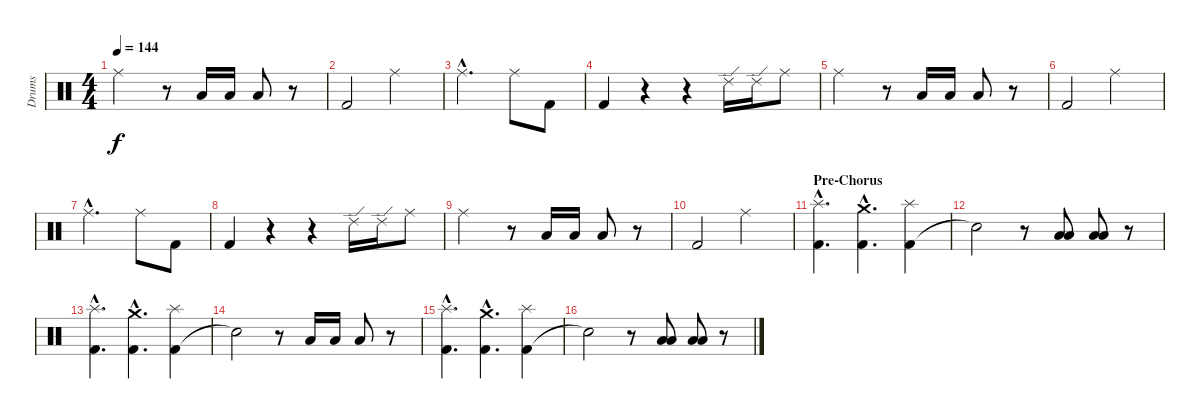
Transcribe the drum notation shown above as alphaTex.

\track ("Drums" "Drums") {instrument percussion}
\staff {score}
\articulation defaults
\ts (4 4)
\tempo 144
\clef neutral
\ks c "Ride (middle)".2{dy f}
r.8 "Low Tom (hit)".16 "Low Tom (hit)".16 "Low Tom (hit)".8 r.8 |
"Kick (hit) 2".2 "Ride (middle)".2 |
"Ride (middle)"{hac}.2{d} "Ride (middle)".8 "Kick (hit) 2".8 |
"Kick (hit) 2".4 r.4 r.4 "Ride (edge) 2".16 "Ride (edge) 2".16 "Ride (middle)".8 |
"Ride (middle)".2 r.8 "Low Tom (hit)".16 "Low Tom (hit)".16 "Low Tom (hit)".8 r.8 |
"Kick (hit) 2".2 "Ride (middle)".2 |
"Ride (middle)"{hac}.2{d} "Ride (middle)".8 "Kick (hit) 2".8 |
"Kick (hit) 2".4 r.4 r.4 "Ride (edge) 2".16 "Ride (edge) 2".16 "Ride (middle)".8 |
"Ride (middle)".2 r.8 "Low Tom (hit)".16 "Low Tom (hit)".16 "Low Tom (hit)".8 r.8 |
"Kick (hit) 2".2 "Ride (middle)".2 |
\section ("" "Pre-Chorus")
("Kick (hit) 2"{hac} "Splash (hit)"{hac}).4{d} ("Kick (hit) 2"{hac} "Crash medium (hit)"{hac}).4{d} ("Kick (hit) 2" "Splash (hit)").4 |
"Snare (hit)"{t}.2 r.8 ("Low Tom (hit)" "Low Tom (hit)").8 ("Low Tom (hit)" "Low Tom (hit)").8 r.8 |
("Kick (hit) 2"{hac} "Splash (hit)"{hac}).4{d} ("Kick (hit) 2"{hac} "Crash medium (hit)"{hac}).4{d} ("Kick (hit) 2" "Splash (hit)").4 |
"Snare (hit)"{t}.2 r.8 "Low Tom (hit)".16 "Low Tom (hit)".16 "Low Tom (hit)".8 r.8 |
("Kick (hit) 2"{hac} "Splash (hit)"{hac}).4{d} ("Kick (hit) 2"{hac} "Crash medium (hit)"{hac}).4{d} ("Kick (hit) 2" "Splash (hit)").4 |
"Snare (hit)"{t}.2 r.8 ("Low Tom (hit)" "Low Tom (hit)").8 ("Low Tom (hit)" "Low Tom (hit)").8 r.8
